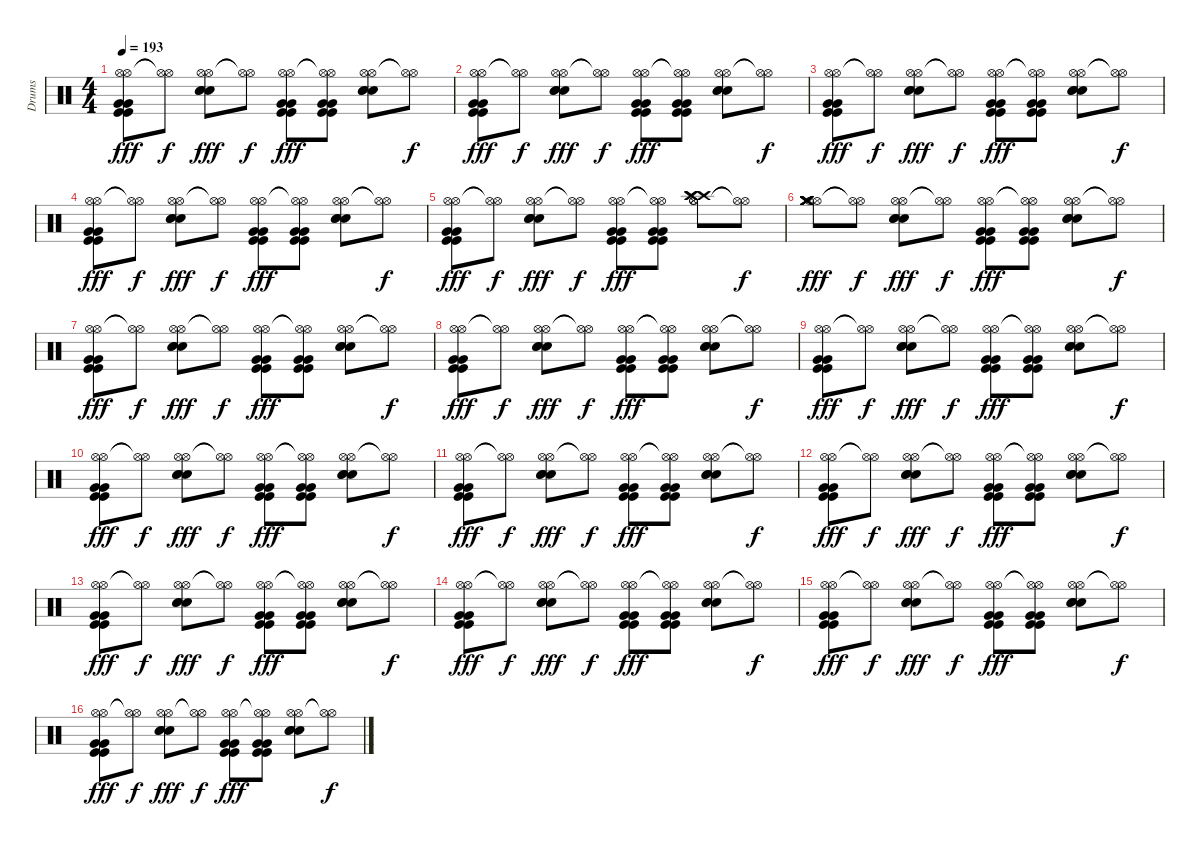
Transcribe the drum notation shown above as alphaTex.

\track ("Drums" "Drums") {instrument percussion}
\staff {score}
\articulation defaults
\ts (4 4)
\tempo 193
\clef neutral
\ks c
("Hi-Hat (open)" "Hi-Hat (open)" "Kick (hit)" "Kick (hit)" "Very Low Tom (hit)" "Very Low Tom (hit)").8{dy fff} ("Hi-Hat (open)"{t} "Hi-Hat (open)"{t}).8{dy f} ("Hi-Hat (open)" "Hi-Hat (open)" "Snare (hit) 2" "Snare (hit) 2" "Snare (hit) 2").8{dy fff} ("Hi-Hat (open)"{t} "Hi-Hat (open)"{t}).8{dy f} ("Hi-Hat (open)" "Hi-Hat (open)" "Kick (hit)" "Kick (hit)" "Very Low Tom (hit)" "Very Low Tom (hit)").8{dy fff} ("Hi-Hat (open)"{t} "Hi-Hat (open)"{t} "Kick (hit)" "Kick (hit)" "Very Low Tom (hit)" "Very Low Tom (hit)").8 ("Hi-Hat (open)" "Hi-Hat (open)" "Snare (hit) 2" "Snare (hit) 2" "Snare (hit) 2").8 ("Hi-Hat (open)"{t} "Hi-Hat (open)"{t}).8{dy f} |
("Hi-Hat (open)" "Hi-Hat (open)" "Kick (hit)" "Kick (hit)" "Very Low Tom (hit)" "Very Low Tom (hit)").8{dy fff} ("Hi-Hat (open)"{t} "Hi-Hat (open)"{t}).8{dy f} ("Hi-Hat (open)" "Hi-Hat (open)" "Snare (hit) 2" "Snare (hit) 2" "Snare (hit) 2").8{dy fff} ("Hi-Hat (open)"{t} "Hi-Hat (open)"{t}).8{dy f} ("Hi-Hat (open)" "Hi-Hat (open)" "Kick (hit)" "Kick (hit)" "Very Low Tom (hit)" "Very Low Tom (hit)").8{dy fff} ("Hi-Hat (open)"{t} "Hi-Hat (open)"{t} "Kick (hit)" "Kick (hit)" "Very Low Tom (hit)" "Very Low Tom (hit)").8 ("Hi-Hat (open)" "Hi-Hat (open)" "Snare (hit) 2" "Snare (hit) 2" "Snare (hit) 2").8 ("Hi-Hat (open)"{t} "Hi-Hat (open)"{t}).8{dy f} |
("Hi-Hat (open)" "Hi-Hat (open)" "Kick (hit)" "Kick (hit)" "Very Low Tom (hit)" "Very Low Tom (hit)").8{dy fff} ("Hi-Hat (open)"{t} "Hi-Hat (open)"{t}).8{dy f} ("Hi-Hat (open)" "Hi-Hat (open)" "Snare (hit) 2" "Snare (hit) 2" "Snare (hit) 2").8{dy fff} ("Hi-Hat (open)"{t} "Hi-Hat (open)"{t}).8{dy f} ("Hi-Hat (open)" "Hi-Hat (open)" "Kick (hit)" "Kick (hit)" "Very Low Tom (hit)" "Very Low Tom (hit)").8{dy fff} ("Hi-Hat (open)"{t} "Hi-Hat (open)"{t} "Kick (hit)" "Kick (hit)" "Very Low Tom (hit)" "Very Low Tom (hit)").8 ("Hi-Hat (open)" "Hi-Hat (open)" "Snare (hit) 2" "Snare (hit) 2" "Snare (hit) 2").8 ("Hi-Hat (open)"{t} "Hi-Hat (open)"{t}).8{dy f} |
("Hi-Hat (open)" "Hi-Hat (open)" "Kick (hit)" "Kick (hit)" "Very Low Tom (hit)" "Very Low Tom (hit)").8{dy fff} ("Hi-Hat (open)"{t} "Hi-Hat (open)"{t}).8{dy f} ("Hi-Hat (open)" "Hi-Hat (open)" "Snare (hit) 2" "Snare (hit) 2" "Snare (hit) 2").8{dy fff} ("Hi-Hat (open)"{t} "Hi-Hat (open)"{t}).8{dy f} ("Hi-Hat (open)" "Hi-Hat (open)" "Kick (hit)" "Kick (hit)" "Very Low Tom (hit)" "Very Low Tom (hit)").8{dy fff} ("Hi-Hat (open)"{t} "Hi-Hat (open)"{t} "Kick (hit)" "Kick (hit)" "Very Low Tom (hit)" "Very Low Tom (hit)").8 ("Hi-Hat (open)" "Hi-Hat (open)" "Snare (hit) 2" "Snare (hit) 2" "Snare (hit) 2").8 ("Hi-Hat (open)"{t} "Hi-Hat (open)"{t}).8{dy f} |
("Hi-Hat (open)" "Hi-Hat (open)" "Kick (hit)" "Kick (hit)" "Very Low Tom (hit)" "Very Low Tom (hit)").8{dy fff} ("Hi-Hat (open)"{t} "Hi-Hat (open)"{t}).8{dy f} ("Hi-Hat (open)" "Hi-Hat (open)" "Snare (hit) 2" "Snare (hit) 2" "Snare (hit) 2").8{dy fff} ("Hi-Hat (open)"{t} "Hi-Hat (open)"{t}).8{dy f} ("Hi-Hat (open)" "Hi-Hat (open)" "Kick (hit)" "Kick (hit)" "Very Low Tom (hit)" "Very Low Tom (hit)").8{dy fff} ("Hi-Hat (open)"{t} "Hi-Hat (open)"{t} "Kick (hit)" "Kick (hit)" "Very Low Tom (hit)" "Very Low Tom (hit)").8 ("Hi-Hat (open)" "Hi-Hat (open)" "Crash high (hit)" "Crash high (hit)" "Crash high (hit)").8 ("Hi-Hat (open)"{t} "Hi-Hat (open)"{t}).8{dy f} |
("Hi-Hat (open)" "Hi-Hat (open)" "Crash medium (hit)" "Crash medium (hit)" "Crash medium (hit)" "Crash medium (hit)").8{dy fff} ("Hi-Hat (open)"{t} "Hi-Hat (open)"{t}).8{dy f} ("Hi-Hat (open)" "Hi-Hat (open)" "Snare (hit) 2" "Snare (hit) 2" "Snare (hit) 2").8{dy fff} ("Hi-Hat (open)"{t} "Hi-Hat (open)"{t}).8{dy f} ("Hi-Hat (open)" "Hi-Hat (open)" "Kick (hit)" "Kick (hit)" "Very Low Tom (hit)" "Very Low Tom (hit)").8{dy fff} ("Hi-Hat (open)"{t} "Hi-Hat (open)"{t} "Kick (hit)" "Kick (hit)" "Very Low Tom (hit)" "Very Low Tom (hit)").8 ("Hi-Hat (open)" "Hi-Hat (open)" "Snare (hit) 2" "Snare (hit) 2" "Snare (hit) 2").8 ("Hi-Hat (open)"{t} "Hi-Hat (open)"{t}).8{dy f} |
("Hi-Hat (open)" "Hi-Hat (open)" "Kick (hit)" "Kick (hit)" "Very Low Tom (hit)" "Very Low Tom (hit)").8{dy fff} ("Hi-Hat (open)"{t} "Hi-Hat (open)"{t}).8{dy f} ("Hi-Hat (open)" "Hi-Hat (open)" "Snare (hit) 2" "Snare (hit) 2" "Snare (hit) 2").8{dy fff} ("Hi-Hat (open)"{t} "Hi-Hat (open)"{t}).8{dy f} ("Hi-Hat (open)" "Hi-Hat (open)" "Kick (hit)" "Kick (hit)" "Very Low Tom (hit)" "Very Low Tom (hit)").8{dy fff} ("Hi-Hat (open)"{t} "Hi-Hat (open)"{t} "Kick (hit)" "Kick (hit)" "Very Low Tom (hit)" "Very Low Tom (hit)").8 ("Hi-Hat (open)" "Hi-Hat (open)" "Snare (hit) 2" "Snare (hit) 2" "Snare (hit) 2").8 ("Hi-Hat (open)"{t} "Hi-Hat (open)"{t}).8{dy f} |
("Hi-Hat (open)" "Hi-Hat (open)" "Kick (hit)" "Kick (hit)" "Very Low Tom (hit)" "Very Low Tom (hit)").8{dy fff} ("Hi-Hat (open)"{t} "Hi-Hat (open)"{t}).8{dy f} ("Hi-Hat (open)" "Hi-Hat (open)" "Snare (hit) 2" "Snare (hit) 2" "Snare (hit) 2").8{dy fff} ("Hi-Hat (open)"{t} "Hi-Hat (open)"{t}).8{dy f} ("Hi-Hat (open)" "Hi-Hat (open)" "Kick (hit)" "Kick (hit)" "Very Low Tom (hit)" "Very Low Tom (hit)").8{dy fff} ("Hi-Hat (open)"{t} "Hi-Hat (open)"{t} "Kick (hit)" "Kick (hit)" "Very Low Tom (hit)" "Very Low Tom (hit)").8 ("Hi-Hat (open)" "Hi-Hat (open)" "Snare (hit) 2" "Snare (hit) 2" "Snare (hit) 2").8 ("Hi-Hat (open)"{t} "Hi-Hat (open)"{t}).8{dy f} |
("Hi-Hat (open)" "Hi-Hat (open)" "Kick (hit)" "Kick (hit)" "Very Low Tom (hit)" "Very Low Tom (hit)").8{dy fff} ("Hi-Hat (open)"{t} "Hi-Hat (open)"{t}).8{dy f} ("Hi-Hat (open)" "Hi-Hat (open)" "Snare (hit) 2" "Snare (hit) 2" "Snare (hit) 2").8{dy fff} ("Hi-Hat (open)"{t} "Hi-Hat (open)"{t}).8{dy f} ("Hi-Hat (open)" "Hi-Hat (open)" "Kick (hit)" "Kick (hit)" "Very Low Tom (hit)" "Very Low Tom (hit)").8{dy fff} ("Hi-Hat (open)"{t} "Hi-Hat (open)"{t} "Kick (hit)" "Kick (hit)" "Very Low Tom (hit)" "Very Low Tom (hit)").8 ("Hi-Hat (open)" "Hi-Hat (open)" "Snare (hit) 2" "Snare (hit) 2" "Snare (hit) 2").8 ("Hi-Hat (open)"{t} "Hi-Hat (open)"{t}).8{dy f} |
("Hi-Hat (open)" "Hi-Hat (open)" "Kick (hit)" "Kick (hit)" "Very Low Tom (hit)" "Very Low Tom (hit)").8{dy fff} ("Hi-Hat (open)"{t} "Hi-Hat (open)"{t}).8{dy f} ("Hi-Hat (open)" "Hi-Hat (open)" "Snare (hit) 2" "Snare (hit) 2" "Snare (hit) 2").8{dy fff} ("Hi-Hat (open)"{t} "Hi-Hat (open)"{t}).8{dy f} ("Hi-Hat (open)" "Hi-Hat (open)" "Kick (hit)" "Kick (hit)" "Very Low Tom (hit)" "Very Low Tom (hit)").8{dy fff} ("Hi-Hat (open)"{t} "Hi-Hat (open)"{t} "Kick (hit)" "Kick (hit)" "Very Low Tom (hit)" "Very Low Tom (hit)").8 ("Hi-Hat (open)" "Hi-Hat (open)" "Snare (hit) 2" "Snare (hit) 2" "Snare (hit) 2").8 ("Hi-Hat (open)"{t} "Hi-Hat (open)"{t}).8{dy f} |
("Hi-Hat (open)" "Hi-Hat (open)" "Kick (hit)" "Kick (hit)" "Very Low Tom (hit)" "Very Low Tom (hit)").8{dy fff} ("Hi-Hat (open)"{t} "Hi-Hat (open)"{t}).8{dy f} ("Hi-Hat (open)" "Hi-Hat (open)" "Snare (hit) 2" "Snare (hit) 2" "Snare (hit) 2").8{dy fff} ("Hi-Hat (open)"{t} "Hi-Hat (open)"{t}).8{dy f} ("Hi-Hat (open)" "Hi-Hat (open)" "Kick (hit)" "Kick (hit)" "Very Low Tom (hit)" "Very Low Tom (hit)").8{dy fff} ("Hi-Hat (open)"{t} "Hi-Hat (open)"{t} "Kick (hit)" "Kick (hit)" "Very Low Tom (hit)" "Very Low Tom (hit)").8 ("Hi-Hat (open)" "Hi-Hat (open)" "Snare (hit) 2" "Snare (hit) 2" "Snare (hit) 2").8 ("Hi-Hat (open)"{t} "Hi-Hat (open)"{t}).8{dy f} |
("Hi-Hat (open)" "Hi-Hat (open)" "Kick (hit)" "Kick (hit)" "Very Low Tom (hit)" "Very Low Tom (hit)").8{dy fff} ("Hi-Hat (open)"{t} "Hi-Hat (open)"{t}).8{dy f} ("Hi-Hat (open)" "Hi-Hat (open)" "Snare (hit) 2" "Snare (hit) 2" "Snare (hit) 2").8{dy fff} ("Hi-Hat (open)"{t} "Hi-Hat (open)"{t}).8{dy f} ("Hi-Hat (open)" "Hi-Hat (open)" "Kick (hit)" "Kick (hit)" "Very Low Tom (hit)" "Very Low Tom (hit)").8{dy fff} ("Hi-Hat (open)"{t} "Hi-Hat (open)"{t} "Kick (hit)" "Kick (hit)" "Very Low Tom (hit)" "Very Low Tom (hit)").8 ("Hi-Hat (open)" "Hi-Hat (open)" "Snare (hit) 2" "Snare (hit) 2" "Snare (hit) 2").8 ("Hi-Hat (open)"{t} "Hi-Hat (open)"{t}).8{dy f} |
("Hi-Hat (open)" "Hi-Hat (open)" "Kick (hit)" "Kick (hit)" "Very Low Tom (hit)" "Very Low Tom (hit)").8{dy fff} ("Hi-Hat (open)"{t} "Hi-Hat (open)"{t}).8{dy f} ("Hi-Hat (open)" "Hi-Hat (open)" "Snare (hit) 2" "Snare (hit) 2" "Snare (hit) 2").8{dy fff} ("Hi-Hat (open)"{t} "Hi-Hat (open)"{t}).8{dy f} ("Hi-Hat (open)" "Hi-Hat (open)" "Kick (hit)" "Kick (hit)" "Very Low Tom (hit)" "Very Low Tom (hit)").8{dy fff} ("Hi-Hat (open)"{t} "Hi-Hat (open)"{t} "Kick (hit)" "Kick (hit)" "Very Low Tom (hit)" "Very Low Tom (hit)").8 ("Hi-Hat (open)" "Hi-Hat (open)" "Snare (hit) 2" "Snare (hit) 2" "Snare (hit) 2").8 ("Hi-Hat (open)"{t} "Hi-Hat (open)"{t}).8{dy f} |
("Hi-Hat (open)" "Hi-Hat (open)" "Kick (hit)" "Kick (hit)" "Very Low Tom (hit)" "Very Low Tom (hit)").8{dy fff} ("Hi-Hat (open)"{t} "Hi-Hat (open)"{t}).8{dy f} ("Hi-Hat (open)" "Hi-Hat (open)" "Snare (hit) 2" "Snare (hit) 2" "Snare (hit) 2").8{dy fff} ("Hi-Hat (open)"{t} "Hi-Hat (open)"{t}).8{dy f} ("Hi-Hat (open)" "Hi-Hat (open)" "Kick (hit)" "Kick (hit)" "Very Low Tom (hit)" "Very Low Tom (hit)").8{dy fff} ("Hi-Hat (open)"{t} "Hi-Hat (open)"{t} "Kick (hit)" "Kick (hit)" "Very Low Tom (hit)" "Very Low Tom (hit)").8 ("Hi-Hat (open)" "Hi-Hat (open)" "Snare (hit) 2" "Snare (hit) 2" "Snare (hit) 2").8 ("Hi-Hat (open)"{t} "Hi-Hat (open)"{t}).8{dy f} |
("Hi-Hat (open)" "Hi-Hat (open)" "Kick (hit)" "Kick (hit)" "Very Low Tom (hit)" "Very Low Tom (hit)").8{dy fff} ("Hi-Hat (open)"{t} "Hi-Hat (open)"{t}).8{dy f} ("Hi-Hat (open)" "Hi-Hat (open)" "Snare (hit) 2" "Snare (hit) 2" "Snare (hit) 2").8{dy fff} ("Hi-Hat (open)"{t} "Hi-Hat (open)"{t}).8{dy f} ("Hi-Hat (open)" "Hi-Hat (open)" "Kick (hit)" "Kick (hit)" "Very Low Tom (hit)" "Very Low Tom (hit)").8{dy fff} ("Hi-Hat (open)"{t} "Hi-Hat (open)"{t} "Kick (hit)" "Kick (hit)" "Very Low Tom (hit)" "Very Low Tom (hit)").8 ("Hi-Hat (open)" "Hi-Hat (open)" "Snare (hit) 2" "Snare (hit) 2" "Snare (hit) 2").8 ("Hi-Hat (open)"{t} "Hi-Hat (open)"{t}).8{dy f} |
("Hi-Hat (open)" "Hi-Hat (open)" "Kick (hit)" "Kick (hit)" "Very Low Tom (hit)" "Very Low Tom (hit)").8{dy fff} ("Hi-Hat (open)"{t} "Hi-Hat (open)"{t}).8{dy f} ("Hi-Hat (open)" "Hi-Hat (open)" "Snare (hit) 2" "Snare (hit) 2" "Snare (hit) 2").8{dy fff} ("Hi-Hat (open)"{t} "Hi-Hat (open)"{t}).8{dy f} ("Hi-Hat (open)" "Hi-Hat (open)" "Kick (hit)" "Kick (hit)" "Very Low Tom (hit)" "Very Low Tom (hit)").8{dy fff} ("Hi-Hat (open)"{t} "Hi-Hat (open)"{t} "Kick (hit)" "Kick (hit)" "Very Low Tom (hit)" "Very Low Tom (hit)").8 ("Hi-Hat (open)" "Hi-Hat (open)" "Snare (hit) 2" "Snare (hit) 2" "Snare (hit) 2").8 ("Hi-Hat (open)"{t} "Hi-Hat (open)"{t}).8{dy f}
